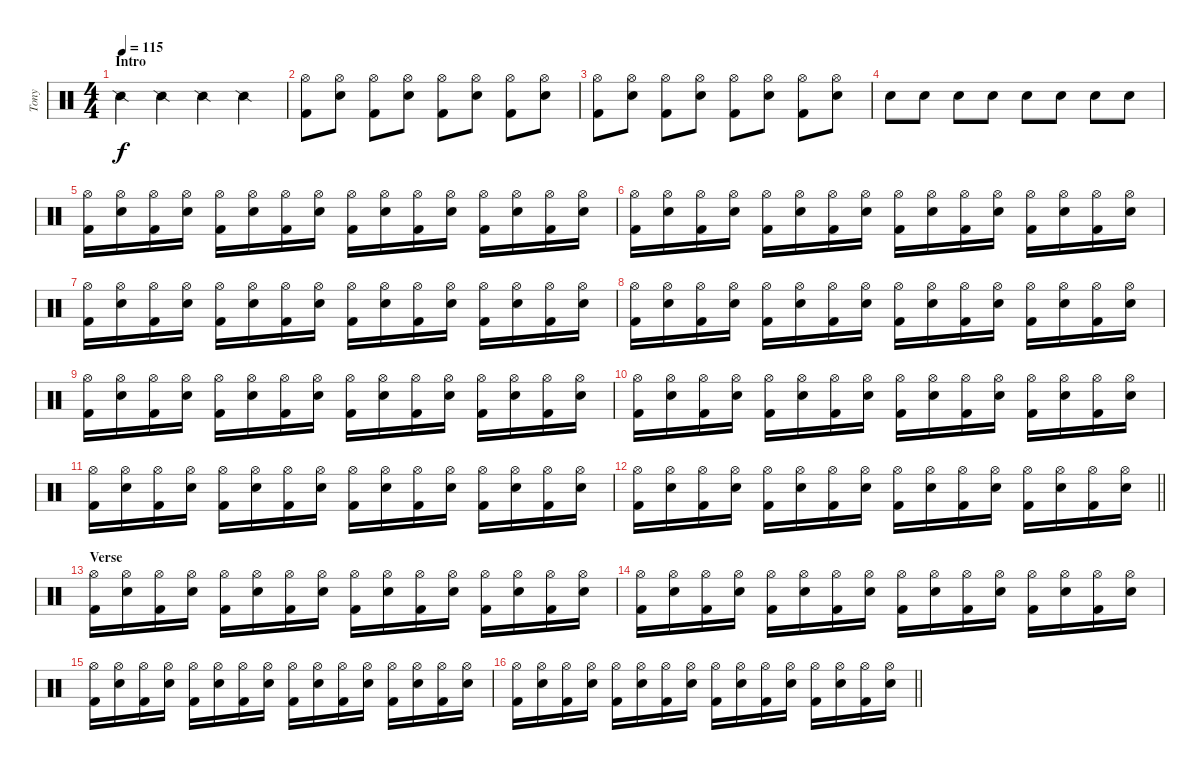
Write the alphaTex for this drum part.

\track ("Tony" "Tony") {instrument percussion}
\staff {score}
\articulation defaults
\ts (4 4)
\section ("" "Intro")
\tempo 115
\clef neutral
\ks c "Snare (side stick) 2".4{dy f} "Snare (side stick) 2".4 "Snare (side stick) 2".4 "Snare (side stick) 2".4
|
("Kick (hit) 2" "Hi-Hat (open)").8 ("Electric Snare (hit)" "Hi-Hat (open)").8 ("Kick (hit) 2" "Hi-Hat (open)").8 ("Electric Snare (hit)" "Hi-Hat (open)").8 ("Kick (hit) 2" "Hi-Hat (open)").8 ("Electric Snare (hit)" "Hi-Hat (open)").8 ("Kick (hit) 2" "Hi-Hat (open)").8 ("Electric Snare (hit)" "Hi-Hat (open)").8 |
("Kick (hit) 2" "Hi-Hat (open)").8 ("Electric Snare (hit)" "Hi-Hat (open)").8 ("Kick (hit) 2" "Hi-Hat (open)").8 ("Electric Snare (hit)" "Hi-Hat (open)").8 ("Kick (hit) 2" "Hi-Hat (open)").8 ("Electric Snare (hit)" "Hi-Hat (open)").8 ("Kick (hit) 2" "Hi-Hat (open)").8 ("Electric Snare (hit)" "Hi-Hat (open)").8 |
"Electric Snare (hit)".8 "Electric Snare (hit)".8 "Electric Snare (hit)".8 "Electric Snare (hit)".8 "Electric Snare (hit)".8 "Electric Snare (hit)".8 "Electric Snare (hit)".8 "Electric Snare (hit)".8 |
("Kick (hit) 2" "Hi-Hat (open)").16 ("Electric Snare (hit)" "Hi-Hat (open)").16 ("Kick (hit) 2" "Hi-Hat (open)").16 ("Electric Snare (hit)" "Hi-Hat (open)").16 ("Kick (hit) 2" "Hi-Hat (open)").16 ("Electric Snare (hit)" "Hi-Hat (open)").16 ("Kick (hit) 2" "Hi-Hat (open)").16 ("Electric Snare (hit)" "Hi-Hat (open)").16 ("Kick (hit) 2" "Hi-Hat (open)").16 ("Electric Snare (hit)" "Hi-Hat (open)").16 ("Kick (hit) 2" "Hi-Hat (open)").16 ("Electric Snare (hit)" "Hi-Hat (open)").16 ("Kick (hit) 2" "Hi-Hat (open)").16 ("Electric Snare (hit)" "Hi-Hat (open)").16 ("Kick (hit) 2" "Hi-Hat (open)").16 ("Electric Snare (hit)" "Hi-Hat (open)").16 |
("Kick (hit) 2" "Hi-Hat (open)").16 ("Electric Snare (hit)" "Hi-Hat (open)").16 ("Kick (hit) 2" "Hi-Hat (open)").16 ("Electric Snare (hit)" "Hi-Hat (open)").16 ("Kick (hit) 2" "Hi-Hat (open)").16 ("Electric Snare (hit)" "Hi-Hat (open)").16 ("Kick (hit) 2" "Hi-Hat (open)").16 ("Electric Snare (hit)" "Hi-Hat (open)").16 ("Kick (hit) 2" "Hi-Hat (open)").16 ("Electric Snare (hit)" "Hi-Hat (open)").16 ("Kick (hit) 2" "Hi-Hat (open)").16 ("Electric Snare (hit)" "Hi-Hat (open)").16 ("Kick (hit) 2" "Hi-Hat (open)").16 ("Electric Snare (hit)" "Hi-Hat (open)").16 ("Kick (hit) 2" "Hi-Hat (open)").16 ("Electric Snare (hit)" "Hi-Hat (open)").16 |
("Kick (hit) 2" "Hi-Hat (open)").16 ("Electric Snare (hit)" "Hi-Hat (open)").16 ("Kick (hit) 2" "Hi-Hat (open)").16 ("Electric Snare (hit)" "Hi-Hat (open)").16 ("Kick (hit) 2" "Hi-Hat (open)").16 ("Electric Snare (hit)" "Hi-Hat (open)").16 ("Kick (hit) 2" "Hi-Hat (open)").16 ("Electric Snare (hit)" "Hi-Hat (open)").16 ("Kick (hit) 2" "Hi-Hat (open)").16 ("Electric Snare (hit)" "Hi-Hat (open)").16 ("Kick (hit) 2" "Hi-Hat (open)").16 ("Electric Snare (hit)" "Hi-Hat (open)").16 ("Kick (hit) 2" "Hi-Hat (open)").16 ("Electric Snare (hit)" "Hi-Hat (open)").16 ("Kick (hit) 2" "Hi-Hat (open)").16 ("Electric Snare (hit)" "Hi-Hat (open)").16 |
("Kick (hit) 2" "Hi-Hat (open)").16 ("Electric Snare (hit)" "Hi-Hat (open)").16 ("Kick (hit) 2" "Hi-Hat (open)").16 ("Electric Snare (hit)" "Hi-Hat (open)").16 ("Kick (hit) 2" "Hi-Hat (open)").16 ("Electric Snare (hit)" "Hi-Hat (open)").16 ("Kick (hit) 2" "Hi-Hat (open)").16 ("Electric Snare (hit)" "Hi-Hat (open)").16 ("Kick (hit) 2" "Hi-Hat (open)").16 ("Electric Snare (hit)" "Hi-Hat (open)").16 ("Kick (hit) 2" "Hi-Hat (open)").16 ("Electric Snare (hit)" "Hi-Hat (open)").16 ("Kick (hit) 2" "Hi-Hat (open)").16 ("Electric Snare (hit)" "Hi-Hat (open)").16 ("Kick (hit) 2" "Hi-Hat (open)").16 ("Electric Snare (hit)" "Hi-Hat (open)").16 |
("Kick (hit) 2" "Hi-Hat (open)").16 ("Electric Snare (hit)" "Hi-Hat (open)").16 ("Kick (hit) 2" "Hi-Hat (open)").16 ("Electric Snare (hit)" "Hi-Hat (open)").16 ("Kick (hit) 2" "Hi-Hat (open)").16 ("Electric Snare (hit)" "Hi-Hat (open)").16 ("Kick (hit) 2" "Hi-Hat (open)").16 ("Electric Snare (hit)" "Hi-Hat (open)").16 ("Kick (hit) 2" "Hi-Hat (open)").16 ("Electric Snare (hit)" "Hi-Hat (open)").16 ("Kick (hit) 2" "Hi-Hat (open)").16 ("Electric Snare (hit)" "Hi-Hat (open)").16 ("Kick (hit) 2" "Hi-Hat (open)").16 ("Electric Snare (hit)" "Hi-Hat (open)").16 ("Kick (hit) 2" "Hi-Hat (open)").16 ("Electric Snare (hit)" "Hi-Hat (open)").16 |
("Kick (hit) 2" "Hi-Hat (open)").16 ("Electric Snare (hit)" "Hi-Hat (open)").16 ("Kick (hit) 2" "Hi-Hat (open)").16 ("Electric Snare (hit)" "Hi-Hat (open)").16 ("Kick (hit) 2" "Hi-Hat (open)").16 ("Electric Snare (hit)" "Hi-Hat (open)").16 ("Kick (hit) 2" "Hi-Hat (open)").16 ("Electric Snare (hit)" "Hi-Hat (open)").16 ("Kick (hit) 2" "Hi-Hat (open)").16 ("Electric Snare (hit)" "Hi-Hat (open)").16 ("Kick (hit) 2" "Hi-Hat (open)").16 ("Electric Snare (hit)" "Hi-Hat (open)").16 ("Kick (hit) 2" "Hi-Hat (open)").16 ("Electric Snare (hit)" "Hi-Hat (open)").16 ("Kick (hit) 2" "Hi-Hat (open)").16 ("Electric Snare (hit)" "Hi-Hat (open)").16 |
("Kick (hit) 2" "Hi-Hat (open)").16 ("Electric Snare (hit)" "Hi-Hat (open)").16 ("Kick (hit) 2" "Hi-Hat (open)").16 ("Electric Snare (hit)" "Hi-Hat (open)").16 ("Kick (hit) 2" "Hi-Hat (open)").16 ("Electric Snare (hit)" "Hi-Hat (open)").16 ("Kick (hit) 2" "Hi-Hat (open)").16 ("Electric Snare (hit)" "Hi-Hat (open)").16 ("Kick (hit) 2" "Hi-Hat (open)").16 ("Electric Snare (hit)" "Hi-Hat (open)").16 ("Kick (hit) 2" "Hi-Hat (open)").16 ("Electric Snare (hit)" "Hi-Hat (open)").16 ("Kick (hit) 2" "Hi-Hat (open)").16 ("Electric Snare (hit)" "Hi-Hat (open)").16 ("Kick (hit) 2" "Hi-Hat (open)").16 ("Electric Snare (hit)" "Hi-Hat (open)").16 |
\barLineRight lightlight
("Kick (hit) 2" "Hi-Hat (open)").16 ("Electric Snare (hit)" "Hi-Hat (open)").16 ("Kick (hit) 2" "Hi-Hat (open)").16 ("Electric Snare (hit)" "Hi-Hat (open)").16 ("Kick (hit) 2" "Hi-Hat (open)").16 ("Electric Snare (hit)" "Hi-Hat (open)").16 ("Kick (hit) 2" "Hi-Hat (open)").16 ("Electric Snare (hit)" "Hi-Hat (open)").16 ("Kick (hit) 2" "Hi-Hat (open)").16 ("Electric Snare (hit)" "Hi-Hat (open)").16 ("Kick (hit) 2" "Hi-Hat (open)").16 ("Electric Snare (hit)" "Hi-Hat (open)").16 ("Kick (hit) 2" "Hi-Hat (open)").16 ("Electric Snare (hit)" "Hi-Hat (open)").16 ("Kick (hit) 2" "Hi-Hat (open)").16 ("Electric Snare (hit)" "Hi-Hat (open)").16 |
\section ("" "Verse")
("Kick (hit) 2" "Hi-Hat (open)").16 ("Electric Snare (hit)" "Hi-Hat (open)").16 ("Kick (hit) 2" "Hi-Hat (open)").16 ("Electric Snare (hit)" "Hi-Hat (open)").16 ("Kick (hit) 2" "Hi-Hat (open)").16 ("Electric Snare (hit)" "Hi-Hat (open)").16 ("Kick (hit) 2" "Hi-Hat (open)").16 ("Electric Snare (hit)" "Hi-Hat (open)").16 ("Kick (hit) 2" "Hi-Hat (open)").16 ("Electric Snare (hit)" "Hi-Hat (open)").16 ("Kick (hit) 2" "Hi-Hat (open)").16 ("Electric Snare (hit)" "Hi-Hat (open)").16 ("Kick (hit) 2" "Hi-Hat (open)").16 ("Electric Snare (hit)" "Hi-Hat (open)").16 ("Kick (hit) 2" "Hi-Hat (open)").16 ("Electric Snare (hit)" "Hi-Hat (open)").16 |
("Kick (hit) 2" "Hi-Hat (open)").16 ("Electric Snare (hit)" "Hi-Hat (open)").16 ("Kick (hit) 2" "Hi-Hat (open)").16 ("Electric Snare (hit)" "Hi-Hat (open)").16 ("Kick (hit) 2" "Hi-Hat (open)").16 ("Electric Snare (hit)" "Hi-Hat (open)").16 ("Kick (hit) 2" "Hi-Hat (open)").16 ("Electric Snare (hit)" "Hi-Hat (open)").16 ("Kick (hit) 2" "Hi-Hat (open)").16 ("Electric Snare (hit)" "Hi-Hat (open)").16 ("Kick (hit) 2" "Hi-Hat (open)").16 ("Electric Snare (hit)" "Hi-Hat (open)").16 ("Kick (hit) 2" "Hi-Hat (open)").16 ("Electric Snare (hit)" "Hi-Hat (open)").16 ("Kick (hit) 2" "Hi-Hat (open)").16 ("Electric Snare (hit)" "Hi-Hat (open)").16 |
("Kick (hit) 2" "Hi-Hat (open)").16 ("Electric Snare (hit)" "Hi-Hat (open)").16 ("Kick (hit) 2" "Hi-Hat (open)").16 ("Electric Snare (hit)" "Hi-Hat (open)").16 ("Kick (hit) 2" "Hi-Hat (open)").16 ("Electric Snare (hit)" "Hi-Hat (open)").16 ("Kick (hit) 2" "Hi-Hat (open)").16 ("Electric Snare (hit)" "Hi-Hat (open)").16 ("Kick (hit) 2" "Hi-Hat (open)").16 ("Electric Snare (hit)" "Hi-Hat (open)").16 ("Kick (hit) 2" "Hi-Hat (open)").16 ("Electric Snare (hit)" "Hi-Hat (open)").16 ("Kick (hit) 2" "Hi-Hat (open)").16 ("Electric Snare (hit)" "Hi-Hat (open)").16 ("Kick (hit) 2" "Hi-Hat (open)").16 ("Electric Snare (hit)" "Hi-Hat (open)").16 |
\barLineRight lightlight
("Kick (hit) 2" "Hi-Hat (open)").16 ("Electric Snare (hit)" "Hi-Hat (open)").16 ("Kick (hit) 2" "Hi-Hat (open)").16 ("Electric Snare (hit)" "Hi-Hat (open)").16 ("Kick (hit) 2" "Hi-Hat (open)").16 ("Electric Snare (hit)" "Hi-Hat (open)").16 ("Kick (hit) 2" "Hi-Hat (open)").16 ("Electric Snare (hit)" "Hi-Hat (open)").16 ("Kick (hit) 2" "Hi-Hat (open)").16 ("Electric Snare (hit)" "Hi-Hat (open)").16 ("Kick (hit) 2" "Hi-Hat (open)").16 ("Electric Snare (hit)" "Hi-Hat (open)").16 ("Kick (hit) 2" "Hi-Hat (open)").16 ("Electric Snare (hit)" "Hi-Hat (open)").16 ("Kick (hit) 2" "Hi-Hat (open)").16 ("Electric Snare (hit)" "Hi-Hat (open)").16
